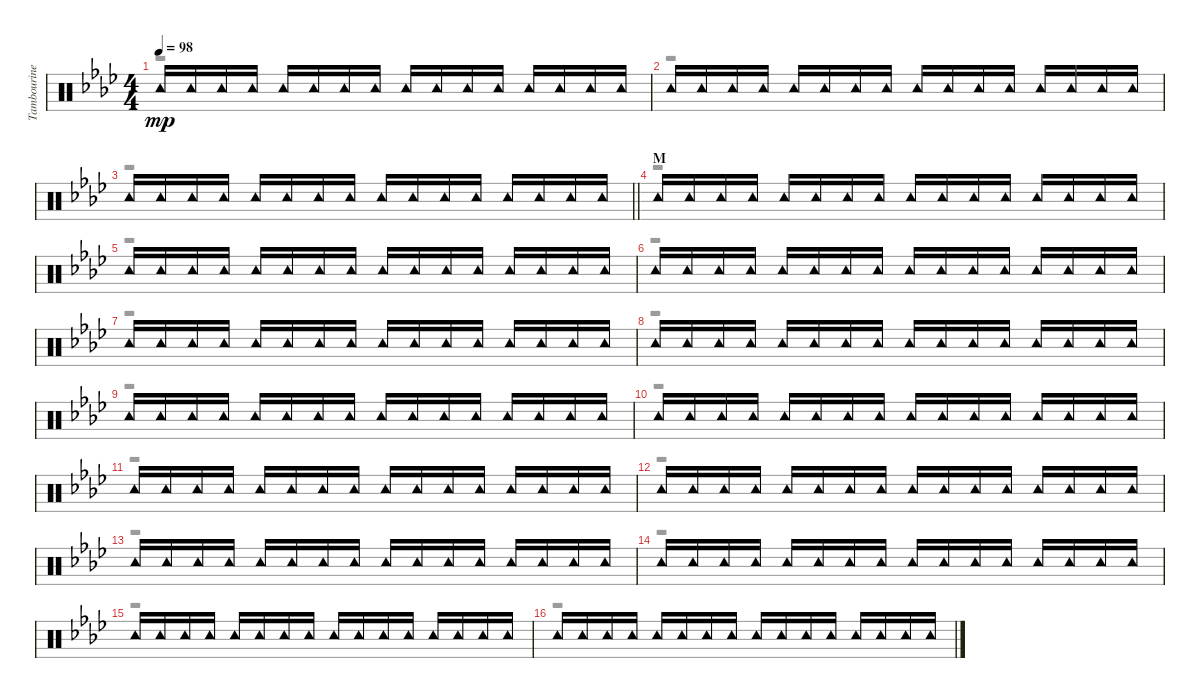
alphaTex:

\track ("Tambourine" "Tambourine") {instrument percussion}
\staff {score}
\articulation defaults
\voice
\ts (4 4)
\tempo 98
\clef neutral
\ks ab "Tambourine (hit)".16{dy mp} "Tambourine (hit)".16 "Tambourine (hit)".16 "Tambourine (hit)".16 "Tambourine (hit)".16 "Tambourine (hit)".16 "Tambourine (hit)".16 "Tambourine (hit)".16 "Tambourine (hit)".16 "Tambourine (hit)".16 "Tambourine (hit)".16 "Tambourine (hit)".16 "Tambourine (hit)".16 "Tambourine (hit)".16 "Tambourine (hit)".16 "Tambourine (hit)".16
|
"Tambourine (hit)".16 "Tambourine (hit)".16 "Tambourine (hit)".16 "Tambourine (hit)".16 "Tambourine (hit)".16 "Tambourine (hit)".16 "Tambourine (hit)".16 "Tambourine (hit)".16 "Tambourine (hit)".16 "Tambourine (hit)".16 "Tambourine (hit)".16 "Tambourine (hit)".16 "Tambourine (hit)".16 "Tambourine (hit)".16 "Tambourine (hit)".16 "Tambourine (hit)".16 |
\barLineRight lightlight "Tambourine (hit)".16 "Tambourine (hit)".16 "Tambourine (hit)".16 "Tambourine (hit)".16 "Tambourine (hit)".16 "Tambourine (hit)".16 "Tambourine (hit)".16 "Tambourine (hit)".16 "Tambourine (hit)".16 "Tambourine (hit)".16 "Tambourine (hit)".16 "Tambourine (hit)".16 "Tambourine (hit)".16 "Tambourine (hit)".16 "Tambourine (hit)".16 "Tambourine (hit)".16
|
\section ("" "M")
"Tambourine (hit)".16 "Tambourine (hit)".16 "Tambourine (hit)".16 "Tambourine (hit)".16 "Tambourine (hit)".16 "Tambourine (hit)".16 "Tambourine (hit)".16 "Tambourine (hit)".16 "Tambourine (hit)".16 "Tambourine (hit)".16 "Tambourine (hit)".16 "Tambourine (hit)".16 "Tambourine (hit)".16 "Tambourine (hit)".16 "Tambourine (hit)".16 "Tambourine (hit)".16 |
"Tambourine (hit)".16 "Tambourine (hit)".16 "Tambourine (hit)".16 "Tambourine (hit)".16 "Tambourine (hit)".16 "Tambourine (hit)".16 "Tambourine (hit)".16 "Tambourine (hit)".16 "Tambourine (hit)".16 "Tambourine (hit)".16 "Tambourine (hit)".16 "Tambourine (hit)".16 "Tambourine (hit)".16 "Tambourine (hit)".16 "Tambourine (hit)".16 "Tambourine (hit)".16 |
"Tambourine (hit)".16 "Tambourine (hit)".16 "Tambourine (hit)".16 "Tambourine (hit)".16 "Tambourine (hit)".16 "Tambourine (hit)".16 "Tambourine (hit)".16 "Tambourine (hit)".16 "Tambourine (hit)".16 "Tambourine (hit)".16 "Tambourine (hit)".16 "Tambourine (hit)".16 "Tambourine (hit)".16 "Tambourine (hit)".16 "Tambourine (hit)".16 "Tambourine (hit)".16 |
"Tambourine (hit)".16 "Tambourine (hit)".16 "Tambourine (hit)".16 "Tambourine (hit)".16 "Tambourine (hit)".16 "Tambourine (hit)".16 "Tambourine (hit)".16 "Tambourine (hit)".16 "Tambourine (hit)".16 "Tambourine (hit)".16 "Tambourine (hit)".16 "Tambourine (hit)".16 "Tambourine (hit)".16 "Tambourine (hit)".16 "Tambourine (hit)".16 "Tambourine (hit)".16 |
"Tambourine (hit)".16 "Tambourine (hit)".16 "Tambourine (hit)".16 "Tambourine (hit)".16 "Tambourine (hit)".16 "Tambourine (hit)".16 "Tambourine (hit)".16 "Tambourine (hit)".16 "Tambourine (hit)".16 "Tambourine (hit)".16 "Tambourine (hit)".16 "Tambourine (hit)".16 "Tambourine (hit)".16 "Tambourine (hit)".16 "Tambourine (hit)".16 "Tambourine (hit)".16 |
"Tambourine (hit)".16 "Tambourine (hit)".16 "Tambourine (hit)".16 "Tambourine (hit)".16 "Tambourine (hit)".16 "Tambourine (hit)".16 "Tambourine (hit)".16 "Tambourine (hit)".16 "Tambourine (hit)".16 "Tambourine (hit)".16 "Tambourine (hit)".16 "Tambourine (hit)".16 "Tambourine (hit)".16 "Tambourine (hit)".16 "Tambourine (hit)".16 "Tambourine (hit)".16 |
"Tambourine (hit)".16 "Tambourine (hit)".16 "Tambourine (hit)".16 "Tambourine (hit)".16 "Tambourine (hit)".16 "Tambourine (hit)".16 "Tambourine (hit)".16 "Tambourine (hit)".16 "Tambourine (hit)".16 "Tambourine (hit)".16 "Tambourine (hit)".16 "Tambourine (hit)".16 "Tambourine (hit)".16 "Tambourine (hit)".16 "Tambourine (hit)".16 "Tambourine (hit)".16 |
"Tambourine (hit)".16 "Tambourine (hit)".16 "Tambourine (hit)".16 "Tambourine (hit)".16 "Tambourine (hit)".16 "Tambourine (hit)".16 "Tambourine (hit)".16 "Tambourine (hit)".16 "Tambourine (hit)".16 "Tambourine (hit)".16 "Tambourine (hit)".16 "Tambourine (hit)".16 "Tambourine (hit)".16 "Tambourine (hit)".16 "Tambourine (hit)".16 "Tambourine (hit)".16 |
"Tambourine (hit)".16 "Tambourine (hit)".16 "Tambourine (hit)".16 "Tambourine (hit)".16 "Tambourine (hit)".16 "Tambourine (hit)".16 "Tambourine (hit)".16 "Tambourine (hit)".16 "Tambourine (hit)".16 "Tambourine (hit)".16 "Tambourine (hit)".16 "Tambourine (hit)".16 "Tambourine (hit)".16 "Tambourine (hit)".16 "Tambourine (hit)".16 "Tambourine (hit)".16 |
"Tambourine (hit)".16 "Tambourine (hit)".16 "Tambourine (hit)".16 "Tambourine (hit)".16 "Tambourine (hit)".16 "Tambourine (hit)".16 "Tambourine (hit)".16 "Tambourine (hit)".16 "Tambourine (hit)".16 "Tambourine (hit)".16 "Tambourine (hit)".16 "Tambourine (hit)".16 "Tambourine (hit)".16 "Tambourine (hit)".16 "Tambourine (hit)".16 "Tambourine (hit)".16 |
"Tambourine (hit)".16 "Tambourine (hit)".16 "Tambourine (hit)".16 "Tambourine (hit)".16 "Tambourine (hit)".16 "Tambourine (hit)".16 "Tambourine (hit)".16 "Tambourine (hit)".16 "Tambourine (hit)".16 "Tambourine (hit)".16 "Tambourine (hit)".16 "Tambourine (hit)".16 "Tambourine (hit)".16 "Tambourine (hit)".16 "Tambourine (hit)".16 "Tambourine (hit)".16 |
"Tambourine (hit)".16 "Tambourine (hit)".16 "Tambourine (hit)".16 "Tambourine (hit)".16 "Tambourine (hit)".16 "Tambourine (hit)".16 "Tambourine (hit)".16 "Tambourine (hit)".16 "Tambourine (hit)".16 "Tambourine (hit)".16 "Tambourine (hit)".16 "Tambourine (hit)".16 "Tambourine (hit)".16 "Tambourine (hit)".16 "Tambourine (hit)".16 "Tambourine (hit)".16 |
"Tambourine (hit)".16 "Tambourine (hit)".16 "Tambourine (hit)".16 "Tambourine (hit)".16 "Tambourine (hit)".16 "Tambourine (hit)".16 "Tambourine (hit)".16 "Tambourine (hit)".16 "Tambourine (hit)".16 "Tambourine (hit)".16 "Tambourine (hit)".16 "Tambourine (hit)".16 "Tambourine (hit)".16 "Tambourine (hit)".16 "Tambourine (hit)".16 "Tambourine (hit)".16
\voice
\clef neutral
\ottava regular
\simile none
\ks ab
r.1{dy f} |
r.1 |
\barLineRight lightlight
r.1 |
r.1 |
r.1 |
r.1 |
r.1 |
r.1 |
r.1 |
r.1 |
r.1 |
r.1 |
r.1 |
r.1 |
r.1 |
r.1
